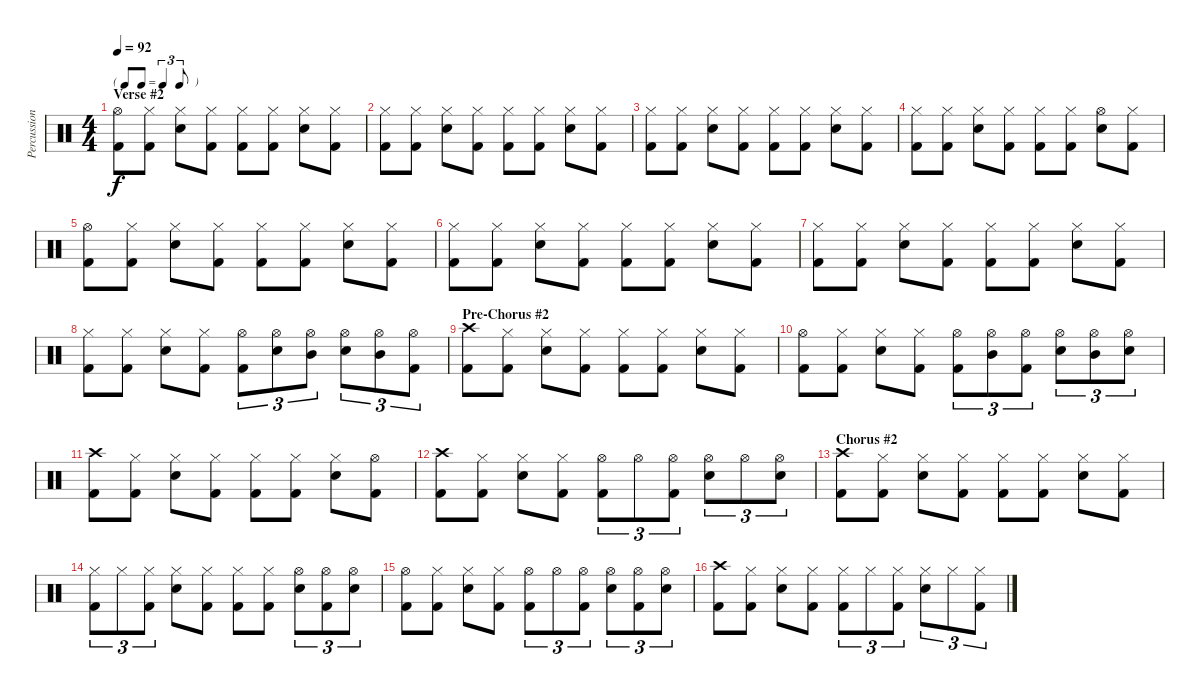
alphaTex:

\track ("Percussion" "Percussion") {instrument percussion}
\staff {score}
\articulation defaults
\ts (4 4)
\tf triplet8th
\section ("" "Verse #2")
\tempo 92
\clef neutral
\ks c
("Hi-Hat (open)" "Kick (hit) 2").8{dy f} ("Hi-Hat (closed)" "Kick (hit) 2").8 ("Hi-Hat (closed)" "Electric Snare (hit)").8 ("Hi-Hat (closed)" "Kick (hit) 2").8 ("Hi-Hat (closed)" "Kick (hit) 2").8 ("Hi-Hat (closed)" "Kick (hit) 2").8 ("Hi-Hat (closed)" "Electric Snare (hit)").8 ("Hi-Hat (closed)" "Kick (hit) 2").8 |
("Hi-Hat (closed)" "Kick (hit) 2").8 ("Hi-Hat (closed)" "Kick (hit) 2").8 ("Hi-Hat (closed)" "Electric Snare (hit)").8 ("Hi-Hat (closed)" "Kick (hit) 2").8 ("Hi-Hat (closed)" "Kick (hit) 2").8 ("Hi-Hat (closed)" "Kick (hit) 2").8 ("Hi-Hat (closed)" "Electric Snare (hit)").8 ("Hi-Hat (closed)" "Kick (hit) 2").8 |
("Hi-Hat (closed)" "Kick (hit) 2").8 ("Hi-Hat (closed)" "Kick (hit) 2").8 ("Hi-Hat (closed)" "Electric Snare (hit)").8 ("Hi-Hat (closed)" "Kick (hit) 2").8 ("Hi-Hat (closed)" "Kick (hit) 2").8 ("Hi-Hat (closed)" "Kick (hit) 2").8 ("Hi-Hat (closed)" "Electric Snare (hit)").8 ("Hi-Hat (closed)" "Kick (hit) 2").8 |
("Hi-Hat (closed)" "Kick (hit) 2").8 ("Hi-Hat (closed)" "Kick (hit) 2").8 ("Hi-Hat (closed)" "Electric Snare (hit)").8 ("Hi-Hat (closed)" "Kick (hit) 2").8 ("Hi-Hat (closed)" "Kick (hit) 2").8 ("Hi-Hat (closed)" "Kick (hit) 2").8 ("Hi-Hat (open)" "Electric Snare (hit)").8 ("Hi-Hat (closed)" "Kick (hit) 2").8 |
("Hi-Hat (open)" "Kick (hit) 2").8 ("Hi-Hat (closed)" "Kick (hit) 2").8 ("Hi-Hat (closed)" "Electric Snare (hit)").8 ("Hi-Hat (closed)" "Kick (hit) 2").8 ("Hi-Hat (closed)" "Kick (hit) 2").8 ("Hi-Hat (closed)" "Kick (hit) 2").8 ("Hi-Hat (closed)" "Electric Snare (hit)").8 ("Hi-Hat (closed)" "Kick (hit) 2").8 |
("Hi-Hat (closed)" "Kick (hit) 2").8 ("Hi-Hat (closed)" "Kick (hit) 2").8 ("Hi-Hat (closed)" "Electric Snare (hit)").8 ("Hi-Hat (closed)" "Kick (hit) 2").8 ("Hi-Hat (closed)" "Kick (hit) 2").8 ("Hi-Hat (closed)" "Kick (hit) 2").8 ("Hi-Hat (closed)" "Electric Snare (hit)").8 ("Hi-Hat (closed)" "Kick (hit) 2").8 |
("Hi-Hat (closed)" "Kick (hit) 2").8 ("Hi-Hat (closed)" "Kick (hit) 2").8 ("Hi-Hat (closed)" "Electric Snare (hit)").8 ("Hi-Hat (closed)" "Kick (hit) 2").8 ("Hi-Hat (closed)" "Kick (hit) 2").8 ("Hi-Hat (closed)" "Kick (hit) 2").8 ("Hi-Hat (closed)" "Electric Snare (hit)").8 ("Hi-Hat (closed)" "Kick (hit) 2").8 |
("Hi-Hat (closed)" "Kick (hit) 2").8 ("Hi-Hat (closed)" "Kick (hit) 2").8 ("Hi-Hat (closed)" "Electric Snare (hit)").8 ("Hi-Hat (closed)" "Kick (hit) 2").8 ("Hi-Hat (open)" "Kick (hit) 2").8{tu (3 2)} ("Hi-Hat (open)" "Electric Snare (hit)").8{tu (3 2)} ("Hi-Hat (open)" "Mid Tom (hit)").8{tu (3 2)} ("Hi-Hat (open)" "Electric Snare (hit)").8{tu (3 2)} ("Hi-Hat (open)" "Mid Tom (hit)").8{tu (3 2)} ("Hi-Hat (open)" "Kick (hit) 2").8{tu (3 2)} |
\section ("" "Pre-Chorus #2")
("Crash high (hit)" "Kick (hit) 2").8 ("Hi-Hat (closed)" "Kick (hit) 2").8 ("Hi-Hat (closed)" "Electric Snare (hit)").8 ("Hi-Hat (closed)" "Kick (hit) 2").8 ("Hi-Hat (closed)" "Kick (hit) 2").8 ("Hi-Hat (closed)" "Kick (hit) 2").8 ("Hi-Hat (closed)" "Electric Snare (hit)").8 ("Hi-Hat (closed)" "Kick (hit) 2").8 |
("Hi-Hat (open)" "Kick (hit) 2").8 ("Hi-Hat (closed)" "Kick (hit) 2").8 ("Hi-Hat (closed)" "Electric Snare (hit)").8 ("Hi-Hat (closed)" "Kick (hit) 2").8 ("Hi-Hat (open)" "Kick (hit) 2").8{tu (3 2)} ("Hi-Hat (open)" "Mid Tom (hit)").8{tu (3 2)} ("Hi-Hat (open)" "Kick (hit) 2").8{tu (3 2)} ("Hi-Hat (open)" "Electric Snare (hit)").8{tu (3 2)} ("Hi-Hat (open)" "Mid Tom (hit)").8{tu (3 2)} ("Hi-Hat (open)" "Electric Snare (hit)").8{tu (3 2)} |
("Crash high (hit)" "Kick (hit) 2").8 ("Hi-Hat (closed)" "Kick (hit) 2").8 ("Hi-Hat (closed)" "Electric Snare (hit)").8 ("Hi-Hat (closed)" "Kick (hit) 2").8 ("Hi-Hat (closed)" "Kick (hit) 2").8 ("Hi-Hat (closed)" "Kick (hit) 2").8 ("Hi-Hat (closed)" "Electric Snare (hit)").8 ("Hi-Hat (open)" "Kick (hit) 2").8 |
("Crash high (hit)" "Kick (hit) 2").8 ("Hi-Hat (closed)" "Kick (hit) 2").8 ("Hi-Hat (closed)" "Electric Snare (hit)").8 ("Hi-Hat (closed)" "Kick (hit) 2").8 ("Hi-Hat (open)" "Kick (hit) 2").8{tu (3 2)} "Hi-Hat (open)".8{tu (3 2)} ("Hi-Hat (open)" "Kick (hit) 2").8{tu (3 2)} ("Hi-Hat (open)" "Electric Snare (hit)").8{tu (3 2)} "Hi-Hat (open)".8{tu (3 2)} ("Hi-Hat (open)" "Electric Snare (hit)").8{tu (3 2)} |
\section ("" "Chorus #2")
("Crash high (hit)" "Kick (hit) 2").8 ("Hi-Hat (closed)" "Kick (hit) 2").8 ("Hi-Hat (closed)" "Electric Snare (hit)").8 ("Hi-Hat (closed)" "Kick (hit) 2").8 ("Hi-Hat (closed)" "Kick (hit) 2").8 ("Hi-Hat (closed)" "Kick (hit) 2").8 ("Hi-Hat (closed)" "Electric Snare (hit)").8 ("Hi-Hat (closed)" "Kick (hit) 2").8 |
("Hi-Hat (closed)" "Kick (hit) 2").8{tu (3 2)} "Hi-Hat (closed)".8{tu (3 2)} ("Hi-Hat (closed)" "Kick (hit) 2").8{tu (3 2)} ("Hi-Hat (closed)" "Electric Snare (hit)").8 ("Hi-Hat (closed)" "Kick (hit) 2").8 ("Hi-Hat (closed)" "Kick (hit) 2").8 ("Hi-Hat (closed)" "Kick (hit) 2").8 ("Hi-Hat (open)" "Electric Snare (hit)").8{tu (3 2)} ("Hi-Hat (open)" "Kick (hit) 2").8{tu (3 2)} ("Hi-Hat (open)" "Electric Snare (hit)").8{tu (3 2)} |
("Hi-Hat (open)" "Kick (hit) 2").8 ("Hi-Hat (closed)" "Kick (hit) 2").8 ("Hi-Hat (closed)" "Electric Snare (hit)").8 ("Hi-Hat (closed)" "Kick (hit) 2").8 ("Hi-Hat (open)" "Kick (hit) 2").8{tu (3 2)} "Hi-Hat (open)".8{tu (3 2)} ("Hi-Hat (open)" "Kick (hit) 2").8{tu (3 2)} ("Hi-Hat (open)" "Electric Snare (hit)").8{tu (3 2)} ("Hi-Hat (open)" "Kick (hit) 2").8{tu (3 2)} ("Hi-Hat (open)" "Electric Snare (hit)").8{tu (3 2)} |
("Crash high (hit)" "Kick (hit) 2").8 ("Hi-Hat (closed)" "Kick (hit) 2").8 ("Hi-Hat (closed)" "Electric Snare (hit)").8 ("Hi-Hat (closed)" "Kick (hit) 2").8 ("Hi-Hat (closed)" "Kick (hit) 2").8{tu (3 2)} "Hi-Hat (closed)".8{tu (3 2)} ("Hi-Hat (closed)" "Kick (hit) 2").8{tu (3 2)} ("Hi-Hat (closed)" "Electric Snare (hit)").8{tu (3 2)} "Hi-Hat (closed)".8{tu (3 2)} ("Hi-Hat (closed)" "Kick (hit) 2").8{tu (3 2)}
